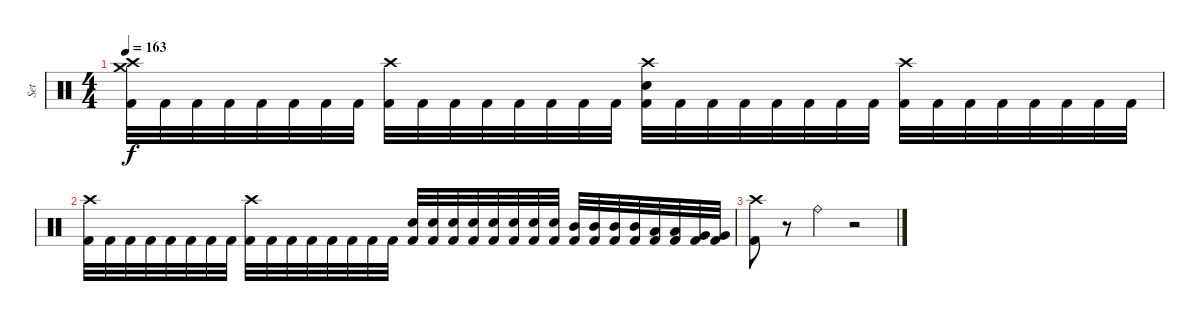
\track ("Set" "Set") {instrument percussion}
\staff {score}
\articulation defaults
\ts (4 4)
\tempo 163
\clef neutral
\ks c
("Crash high (hit)" "Crash medium (hit)" "Kick (hit) 2").32{dy f} "Kick (hit) 2".32 "Kick (hit) 2".32 "Kick (hit) 2".32 "Kick (hit) 2".32 "Kick (hit) 2".32 "Kick (hit) 2".32 "Kick (hit) 2".32 ("Crash high (hit)" "Kick (hit) 2").32 "Kick (hit) 2".32 "Kick (hit) 2".32 "Kick (hit) 2".32 "Kick (hit) 2".32 "Kick (hit) 2".32 "Kick (hit) 2".32 "Kick (hit) 2".32 ("Crash high (hit)" "Snare (hit) 2" "Kick (hit) 2").32 "Kick (hit) 2".32 "Kick (hit) 2".32 "Kick (hit) 2".32 "Kick (hit) 2".32 "Kick (hit) 2".32 "Kick (hit) 2".32 "Kick (hit) 2".32 ("Crash high (hit)" "Kick (hit) 2").32 "Kick (hit) 2".32 "Kick (hit) 2".32 "Kick (hit) 2".32 "Kick (hit) 2".32 "Kick (hit) 2".32 "Kick (hit) 2".32 "Kick (hit) 2".32 |
("Crash high (hit)" "Kick (hit) 2").32 "Kick (hit) 2".32 "Kick (hit) 2".32 "Kick (hit) 2".32 "Kick (hit) 2".32 "Kick (hit) 2".32 "Kick (hit) 2".32 "Kick (hit) 2".32 ("Crash high (hit)" "Kick (hit) 2").32 "Kick (hit) 2".32 "Kick (hit) 2".32 "Kick (hit) 2".32 "Kick (hit) 2".32 "Kick (hit) 2".32 "Kick (hit) 2".32 "Kick (hit) 2".32 ("Snare (hit) 2" "Kick (hit) 2").32 ("Snare (hit) 2" "Kick (hit) 2").32 ("Snare (hit) 2" "Kick (hit) 2").32 ("Snare (hit) 2" "Kick (hit) 2").32 ("Snare (hit) 2" "Kick (hit) 2").32 ("Snare (hit) 2" "Kick (hit) 2").32 ("Snare (hit) 2" "Kick (hit) 2").32 ("Snare (hit) 2" "Kick (hit) 2").32 ("Mid Tom (hit)" "Kick (hit) 2").32 ("Mid Tom (hit)" "Kick (hit) 2").32 ("Mid Tom (hit)" "Kick (hit) 2").32 ("Mid Tom (hit)" "Kick (hit) 2").32 ("Low Tom (hit)" "Kick (hit) 2").32 ("Low Tom (hit)" "Kick (hit) 2").32 ("Very Low Tom (hit)" "Kick (hit) 2").32 ("Very Low Tom (hit)" "Kick (hit) 2").32 |
("Crash high (hit)" "Kick (hit) 2").8 r.8{volume 0} "Ride (bell)".4{volume 16} r.2
